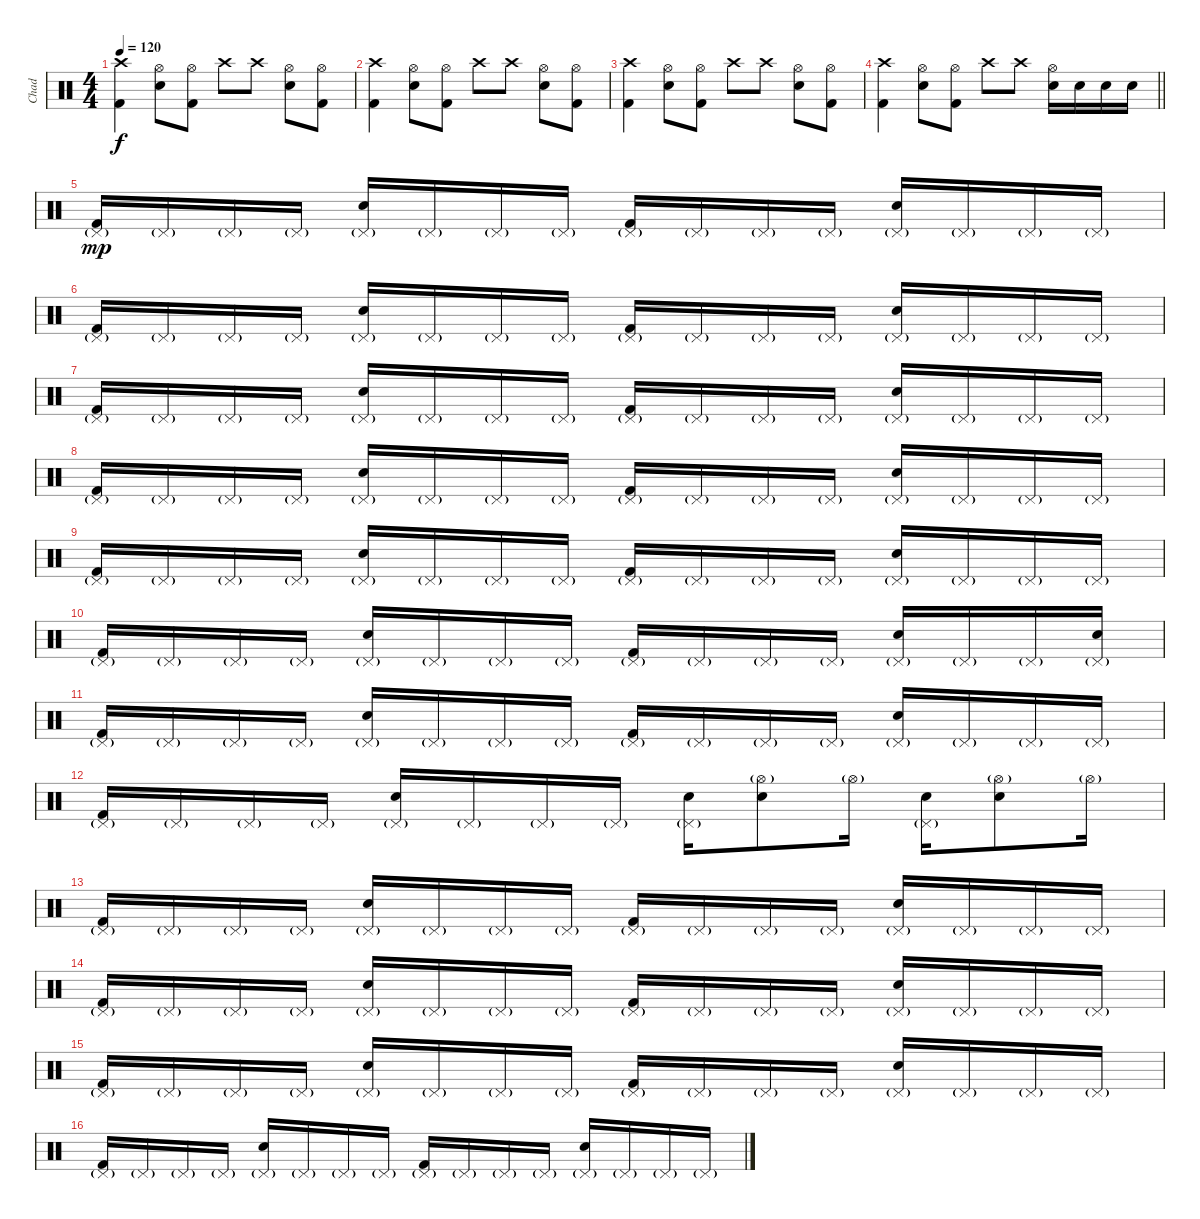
\track ("Chad" "Chad") {instrument percussion}
\staff {score}
\articulation defaults
\ts (4 4)
\tempo 120
\clef neutral
\ks c
("Kick (hit) 2" "Crash high (hit)").4{dy f} ("Electric Snare (hit)" "Hi-Hat (open)").8 ("Kick (hit) 2" "Hi-Hat (open)").8 "Crash high (hit)".8 "Crash high (hit)".8 ("Electric Snare (hit)" "Hi-Hat (open)").8 ("Kick (hit) 2" "Hi-Hat (open)").8 |
("Kick (hit) 2" "Crash high (hit)").4 ("Electric Snare (hit)" "Hi-Hat (open)").8 ("Kick (hit) 2" "Hi-Hat (open)").8 "Crash high (hit)".8 "Crash high (hit)".8 ("Electric Snare (hit)" "Hi-Hat (open)").8 ("Kick (hit) 2" "Hi-Hat (open)").8 |
("Kick (hit) 2" "Crash high (hit)").4 ("Electric Snare (hit)" "Hi-Hat (open)").8 ("Kick (hit) 2" "Hi-Hat (open)").8 "Crash high (hit)".8 "Crash high (hit)".8 ("Electric Snare (hit)" "Hi-Hat (open)").8 ("Kick (hit) 2" "Hi-Hat (open)").8 |
\barLineRight lightlight
("Kick (hit) 2" "Crash high (hit)").4 ("Electric Snare (hit)" "Hi-Hat (open)").8 ("Kick (hit) 2" "Hi-Hat (open)").8 "Crash high (hit)".8 "Crash high (hit)".8 ("Electric Snare (hit)" "Hi-Hat (open)").16 "Electric Snare (hit)".16 "Electric Snare (hit)".16 "Electric Snare (hit)".16 |
("Kick (hit) 2" "Pedal Hi-Hat (hit)"{g}).16{dy mp} "Pedal Hi-Hat (hit)"{g}.16 "Pedal Hi-Hat (hit)"{g}.16 "Pedal Hi-Hat (hit)"{g}.16 ("Electric Snare (hit)" "Pedal Hi-Hat (hit)"{g}).16 "Pedal Hi-Hat (hit)"{g}.16 "Pedal Hi-Hat (hit)"{g}.16 "Pedal Hi-Hat (hit)"{g}.16 ("Kick (hit) 2" "Pedal Hi-Hat (hit)"{g}).16 "Pedal Hi-Hat (hit)"{g}.16 "Pedal Hi-Hat (hit)"{g}.16 "Pedal Hi-Hat (hit)"{g}.16 ("Electric Snare (hit)" "Pedal Hi-Hat (hit)"{g}).16 "Pedal Hi-Hat (hit)"{g}.16 "Pedal Hi-Hat (hit)"{g}.16 "Pedal Hi-Hat (hit)"{g}.16 |
("Kick (hit) 2" "Pedal Hi-Hat (hit)"{g}).16 "Pedal Hi-Hat (hit)"{g}.16 "Pedal Hi-Hat (hit)"{g}.16 "Pedal Hi-Hat (hit)"{g}.16 ("Electric Snare (hit)" "Pedal Hi-Hat (hit)"{g}).16 "Pedal Hi-Hat (hit)"{g}.16 "Pedal Hi-Hat (hit)"{g}.16 "Pedal Hi-Hat (hit)"{g}.16 ("Kick (hit) 2" "Pedal Hi-Hat (hit)"{g}).16 "Pedal Hi-Hat (hit)"{g}.16 "Pedal Hi-Hat (hit)"{g}.16 "Pedal Hi-Hat (hit)"{g}.16 ("Electric Snare (hit)" "Pedal Hi-Hat (hit)"{g}).16 "Pedal Hi-Hat (hit)"{g}.16 "Pedal Hi-Hat (hit)"{g}.16 "Pedal Hi-Hat (hit)"{g}.16 |
("Kick (hit) 2" "Pedal Hi-Hat (hit)"{g}).16 "Pedal Hi-Hat (hit)"{g}.16 "Pedal Hi-Hat (hit)"{g}.16 "Pedal Hi-Hat (hit)"{g}.16 ("Electric Snare (hit)" "Pedal Hi-Hat (hit)"{g}).16 "Pedal Hi-Hat (hit)"{g}.16 "Pedal Hi-Hat (hit)"{g}.16 "Pedal Hi-Hat (hit)"{g}.16 ("Kick (hit) 2" "Pedal Hi-Hat (hit)"{g}).16 "Pedal Hi-Hat (hit)"{g}.16 "Pedal Hi-Hat (hit)"{g}.16 "Pedal Hi-Hat (hit)"{g}.16 ("Electric Snare (hit)" "Pedal Hi-Hat (hit)"{g}).16 "Pedal Hi-Hat (hit)"{g}.16 "Pedal Hi-Hat (hit)"{g}.16 "Pedal Hi-Hat (hit)"{g}.16 |
("Kick (hit) 2" "Pedal Hi-Hat (hit)"{g}).16 "Pedal Hi-Hat (hit)"{g}.16 "Pedal Hi-Hat (hit)"{g}.16 "Pedal Hi-Hat (hit)"{g}.16 ("Electric Snare (hit)" "Pedal Hi-Hat (hit)"{g}).16 "Pedal Hi-Hat (hit)"{g}.16 "Pedal Hi-Hat (hit)"{g}.16 "Pedal Hi-Hat (hit)"{g}.16 ("Kick (hit) 2" "Pedal Hi-Hat (hit)"{g}).16 "Pedal Hi-Hat (hit)"{g}.16 "Pedal Hi-Hat (hit)"{g}.16 "Pedal Hi-Hat (hit)"{g}.16 ("Electric Snare (hit)" "Pedal Hi-Hat (hit)"{g}).16 "Pedal Hi-Hat (hit)"{g}.16 "Pedal Hi-Hat (hit)"{g}.16 "Pedal Hi-Hat (hit)"{g}.16 |
("Kick (hit) 2" "Pedal Hi-Hat (hit)"{g}).16 "Pedal Hi-Hat (hit)"{g}.16 "Pedal Hi-Hat (hit)"{g}.16 "Pedal Hi-Hat (hit)"{g}.16 ("Electric Snare (hit)" "Pedal Hi-Hat (hit)"{g}).16 "Pedal Hi-Hat (hit)"{g}.16 "Pedal Hi-Hat (hit)"{g}.16 "Pedal Hi-Hat (hit)"{g}.16 ("Kick (hit) 2" "Pedal Hi-Hat (hit)"{g}).16 "Pedal Hi-Hat (hit)"{g}.16 "Pedal Hi-Hat (hit)"{g}.16 "Pedal Hi-Hat (hit)"{g}.16 ("Electric Snare (hit)" "Pedal Hi-Hat (hit)"{g}).16 "Pedal Hi-Hat (hit)"{g}.16 "Pedal Hi-Hat (hit)"{g}.16 "Pedal Hi-Hat (hit)"{g}.16 |
("Kick (hit) 2" "Pedal Hi-Hat (hit)"{g}).16 "Pedal Hi-Hat (hit)"{g}.16 "Pedal Hi-Hat (hit)"{g}.16 "Pedal Hi-Hat (hit)"{g}.16 ("Electric Snare (hit)" "Pedal Hi-Hat (hit)"{g}).16 "Pedal Hi-Hat (hit)"{g}.16 "Pedal Hi-Hat (hit)"{g}.16 "Pedal Hi-Hat (hit)"{g}.16 ("Kick (hit) 2" "Pedal Hi-Hat (hit)"{g}).16 "Pedal Hi-Hat (hit)"{g}.16 "Pedal Hi-Hat (hit)"{g}.16 "Pedal Hi-Hat (hit)"{g}.16 ("Electric Snare (hit)" "Pedal Hi-Hat (hit)"{g}).16 "Pedal Hi-Hat (hit)"{g}.16 "Pedal Hi-Hat (hit)"{g}.16 ("Electric Snare (hit)" "Pedal Hi-Hat (hit)"{g}).16 |
("Kick (hit) 2" "Pedal Hi-Hat (hit)"{g}).16 "Pedal Hi-Hat (hit)"{g}.16 "Pedal Hi-Hat (hit)"{g}.16 "Pedal Hi-Hat (hit)"{g}.16 ("Electric Snare (hit)" "Pedal Hi-Hat (hit)"{g}).16 "Pedal Hi-Hat (hit)"{g}.16 "Pedal Hi-Hat (hit)"{g}.16 "Pedal Hi-Hat (hit)"{g}.16 ("Kick (hit) 2" "Pedal Hi-Hat (hit)"{g}).16 "Pedal Hi-Hat (hit)"{g}.16 "Pedal Hi-Hat (hit)"{g}.16 "Pedal Hi-Hat (hit)"{g}.16 ("Electric Snare (hit)" "Pedal Hi-Hat (hit)"{g}).16 "Pedal Hi-Hat (hit)"{g}.16 "Pedal Hi-Hat (hit)"{g}.16 "Pedal Hi-Hat (hit)"{g}.16 |
("Kick (hit) 2" "Pedal Hi-Hat (hit)"{g}).16 "Pedal Hi-Hat (hit)"{g}.16 "Pedal Hi-Hat (hit)"{g}.16 "Pedal Hi-Hat (hit)"{g}.16 ("Electric Snare (hit)" "Pedal Hi-Hat (hit)"{g}).16 "Pedal Hi-Hat (hit)"{g}.16 "Pedal Hi-Hat (hit)"{g}.16 "Pedal Hi-Hat (hit)"{g}.16 ("Electric Snare (hit)" "Pedal Hi-Hat (hit)"{g}).16 ("Electric Snare (hit)" "Hi-Hat (open)"{g}).8 "Hi-Hat (open)"{g}.16 ("Electric Snare (hit)" "Pedal Hi-Hat (hit)"{g}).16 ("Electric Snare (hit)" "Hi-Hat (open)"{g}).8 "Hi-Hat (open)"{g}.16 |
("Kick (hit) 2" "Pedal Hi-Hat (hit)"{g}).16 "Pedal Hi-Hat (hit)"{g}.16 "Pedal Hi-Hat (hit)"{g}.16 "Pedal Hi-Hat (hit)"{g}.16 ("Electric Snare (hit)" "Pedal Hi-Hat (hit)"{g}).16 "Pedal Hi-Hat (hit)"{g}.16 "Pedal Hi-Hat (hit)"{g}.16 "Pedal Hi-Hat (hit)"{g}.16 ("Kick (hit) 2" "Pedal Hi-Hat (hit)"{g}).16 "Pedal Hi-Hat (hit)"{g}.16 "Pedal Hi-Hat (hit)"{g}.16 "Pedal Hi-Hat (hit)"{g}.16 ("Electric Snare (hit)" "Pedal Hi-Hat (hit)"{g}).16 "Pedal Hi-Hat (hit)"{g}.16 "Pedal Hi-Hat (hit)"{g}.16 "Pedal Hi-Hat (hit)"{g}.16 |
("Kick (hit) 2" "Pedal Hi-Hat (hit)"{g}).16 "Pedal Hi-Hat (hit)"{g}.16 "Pedal Hi-Hat (hit)"{g}.16 "Pedal Hi-Hat (hit)"{g}.16 ("Electric Snare (hit)" "Pedal Hi-Hat (hit)"{g}).16 "Pedal Hi-Hat (hit)"{g}.16 "Pedal Hi-Hat (hit)"{g}.16 "Pedal Hi-Hat (hit)"{g}.16 ("Kick (hit) 2" "Pedal Hi-Hat (hit)"{g}).16 "Pedal Hi-Hat (hit)"{g}.16 "Pedal Hi-Hat (hit)"{g}.16 "Pedal Hi-Hat (hit)"{g}.16 ("Electric Snare (hit)" "Pedal Hi-Hat (hit)"{g}).16 "Pedal Hi-Hat (hit)"{g}.16 "Pedal Hi-Hat (hit)"{g}.16 "Pedal Hi-Hat (hit)"{g}.16 |
("Kick (hit) 2" "Pedal Hi-Hat (hit)"{g}).16 "Pedal Hi-Hat (hit)"{g}.16 "Pedal Hi-Hat (hit)"{g}.16 "Pedal Hi-Hat (hit)"{g}.16 ("Electric Snare (hit)" "Pedal Hi-Hat (hit)"{g}).16 "Pedal Hi-Hat (hit)"{g}.16 "Pedal Hi-Hat (hit)"{g}.16 "Pedal Hi-Hat (hit)"{g}.16 ("Kick (hit) 2" "Pedal Hi-Hat (hit)"{g}).16 "Pedal Hi-Hat (hit)"{g}.16 "Pedal Hi-Hat (hit)"{g}.16 "Pedal Hi-Hat (hit)"{g}.16 ("Electric Snare (hit)" "Pedal Hi-Hat (hit)"{g}).16 "Pedal Hi-Hat (hit)"{g}.16 "Pedal Hi-Hat (hit)"{g}.16 "Pedal Hi-Hat (hit)"{g}.16 |
("Kick (hit) 2" "Pedal Hi-Hat (hit)"{g}).16 "Pedal Hi-Hat (hit)"{g}.16 "Pedal Hi-Hat (hit)"{g}.16 "Pedal Hi-Hat (hit)"{g}.16 ("Electric Snare (hit)" "Pedal Hi-Hat (hit)"{g}).16 "Pedal Hi-Hat (hit)"{g}.16 "Pedal Hi-Hat (hit)"{g}.16 "Pedal Hi-Hat (hit)"{g}.16 ("Kick (hit) 2" "Pedal Hi-Hat (hit)"{g}).16 "Pedal Hi-Hat (hit)"{g}.16 "Pedal Hi-Hat (hit)"{g}.16 "Pedal Hi-Hat (hit)"{g}.16 ("Electric Snare (hit)" "Pedal Hi-Hat (hit)"{g}).16 "Pedal Hi-Hat (hit)"{g}.16 "Pedal Hi-Hat (hit)"{g}.16 "Pedal Hi-Hat (hit)"{g}.16
